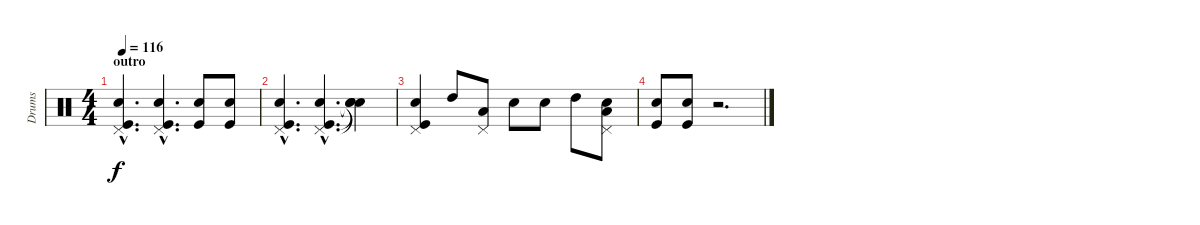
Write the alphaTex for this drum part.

\track ("Drums" "Drums") {instrument percussion}
\staff {score}
\articulation defaults
\ts (4 4)
\section ("" "outro")
\tempo 116
\clef neutral
\ks c
("Electric Snare (hit)"{hac} "Pedal Hi-Hat (hit)"{hac} "Kick (hit)"{hac}).4{d dy f} ("Electric Snare (hit)"{hac} "Pedal Hi-Hat (hit)"{hac} "Kick (hit)"{hac}).4{d} ("Electric Snare (hit)" "Kick (hit)").8 ("Electric Snare (hit)" "Kick (hit)").8 |
("Electric Snare (hit)"{hac} "Pedal Hi-Hat (hit)"{hac} "Kick (hit)"{hac}).4{d} ("Electric Snare (hit)"{hac} "Pedal Hi-Hat (hit)"{hac} "Kick (hit)"{hac}).4{d} ("Snare (hit)"{t} "Snare (hit)"{t} "Snare (hit)"{t}).4 |
("Electric Snare (hit)" "Pedal Hi-Hat (hit)" "Kick (hit)").4 "High Tom (hit)".8 ("Pedal Hi-Hat (hit)" "Low Tom (hit)").8 "Electric Snare (hit)".8 "Electric Snare (hit)".8 "High Tom (hit)".8 ("Pedal Hi-Hat (hit)" "Electric Snare (hit)" "Low Tom (hit)").8 |
("Electric Snare (hit)" "Kick (hit)").8 ("Electric Snare (hit)" "Kick (hit)").8 r.2{d}
